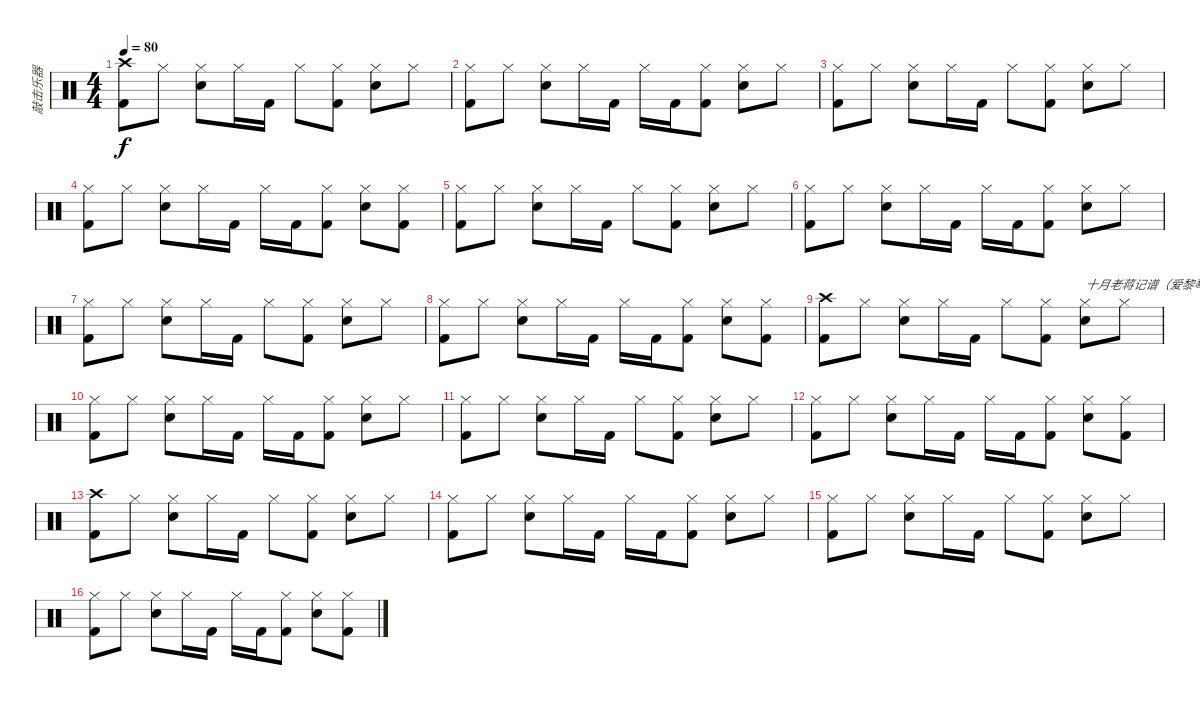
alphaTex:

\track ("敲击乐器" "敲击乐器") {instrument percussion}
\staff {score}
\articulation defaults
\ts (4 4)
\tempo 80
\clef neutral
\ks c
("Crash high (hit)" "Kick (hit) 2").8{dy f} "Hi-Hat (closed)".8 ("Hi-Hat (closed)" "Electric Snare (hit)").8 "Hi-Hat (closed)".16 "Kick (hit) 2".16 "Hi-Hat (closed)".8 ("Hi-Hat (closed)" "Kick (hit) 2").8 ("Hi-Hat (closed)" "Electric Snare (hit)").8 "Hi-Hat (closed)".8 |
("Hi-Hat (closed)" "Kick (hit) 2").8 "Hi-Hat (closed)".8 ("Hi-Hat (closed)" "Electric Snare (hit)").8 "Hi-Hat (closed)".16 "Kick (hit) 2".16 "Hi-Hat (closed)".16 "Kick (hit) 2".16 ("Hi-Hat (closed)" "Kick (hit) 2").8 ("Hi-Hat (closed)" "Electric Snare (hit)").8 "Hi-Hat (closed)".8 |
("Hi-Hat (closed)" "Kick (hit) 2").8 "Hi-Hat (closed)".8 ("Hi-Hat (closed)" "Electric Snare (hit)").8 "Hi-Hat (closed)".16 "Kick (hit) 2".16 "Hi-Hat (closed)".8 ("Hi-Hat (closed)" "Kick (hit) 2").8 ("Hi-Hat (closed)" "Electric Snare (hit)").8 "Hi-Hat (closed)".8 |
("Hi-Hat (closed)" "Kick (hit) 2").8 "Hi-Hat (closed)".8 ("Hi-Hat (closed)" "Electric Snare (hit)").8 "Hi-Hat (closed)".16 "Kick (hit) 2".16 "Hi-Hat (closed)".16 "Kick (hit) 2".16 ("Hi-Hat (closed)" "Kick (hit) 2").8 ("Hi-Hat (closed)" "Electric Snare (hit)").8 ("Hi-Hat (closed)" "Kick (hit) 2").8 |
("Hi-Hat (closed)" "Kick (hit) 2").8 "Hi-Hat (closed)".8 ("Hi-Hat (closed)" "Electric Snare (hit)").8 "Hi-Hat (closed)".16 "Kick (hit) 2".16 "Hi-Hat (closed)".8 ("Hi-Hat (closed)" "Kick (hit) 2").8 ("Hi-Hat (closed)" "Electric Snare (hit)").8 "Hi-Hat (closed)".8 |
("Hi-Hat (closed)" "Kick (hit) 2").8 "Hi-Hat (closed)".8 ("Hi-Hat (closed)" "Electric Snare (hit)").8 "Hi-Hat (closed)".16 "Kick (hit) 2".16 "Hi-Hat (closed)".16 "Kick (hit) 2".16 ("Hi-Hat (closed)" "Kick (hit) 2").8 ("Hi-Hat (closed)" "Electric Snare (hit)").8 "Hi-Hat (closed)".8 |
("Hi-Hat (closed)" "Kick (hit) 2").8 "Hi-Hat (closed)".8 ("Hi-Hat (closed)" "Electric Snare (hit)").8 "Hi-Hat (closed)".16 "Kick (hit) 2".16 "Hi-Hat (closed)".8 ("Hi-Hat (closed)" "Kick (hit) 2").8 ("Hi-Hat (closed)" "Electric Snare (hit)").8 "Hi-Hat (closed)".8 |
("Hi-Hat (closed)" "Kick (hit) 2").8 "Hi-Hat (closed)".8 ("Hi-Hat (closed)" "Electric Snare (hit)").8 "Hi-Hat (closed)".16 "Kick (hit) 2".16 "Hi-Hat (closed)".16 "Kick (hit) 2".16 ("Hi-Hat (closed)" "Kick (hit) 2").8 ("Hi-Hat (closed)" "Electric Snare (hit)").8 ("Hi-Hat (closed)" "Kick (hit) 2").8 |
("Crash high (hit)" "Kick (hit) 2").8 "Hi-Hat (closed)".8 ("Hi-Hat (closed)" "Electric Snare (hit)").8 "Hi-Hat (closed)".16 "Kick (hit) 2".16 "Hi-Hat (closed)".8 ("Hi-Hat (closed)" "Kick (hit) 2").8 ("Hi-Hat (closed)" "Electric Snare (hit)").8{txt "十月老蒋记谱（爱黎琴行）QQ:1713914374"} "Hi-Hat (closed)".8 |
("Hi-Hat (closed)" "Kick (hit) 2").8 "Hi-Hat (closed)".8 ("Hi-Hat (closed)" "Electric Snare (hit)").8 "Hi-Hat (closed)".16 "Kick (hit) 2".16 "Hi-Hat (closed)".16 "Kick (hit) 2".16 ("Hi-Hat (closed)" "Kick (hit) 2").8 ("Hi-Hat (closed)" "Electric Snare (hit)").8 "Hi-Hat (closed)".8 |
("Hi-Hat (closed)" "Kick (hit) 2").8 "Hi-Hat (closed)".8 ("Hi-Hat (closed)" "Electric Snare (hit)").8 "Hi-Hat (closed)".16 "Kick (hit) 2".16 "Hi-Hat (closed)".8 ("Hi-Hat (closed)" "Kick (hit) 2").8 ("Hi-Hat (closed)" "Electric Snare (hit)").8 "Hi-Hat (closed)".8 |
("Hi-Hat (closed)" "Kick (hit) 2").8 "Hi-Hat (closed)".8 ("Hi-Hat (closed)" "Electric Snare (hit)").8 "Hi-Hat (closed)".16 "Kick (hit) 2".16 "Hi-Hat (closed)".16 "Kick (hit) 2".16 ("Hi-Hat (closed)" "Kick (hit) 2").8 ("Hi-Hat (closed)" "Electric Snare (hit)").8 ("Hi-Hat (closed)" "Kick (hit) 2").8 |
("Crash high (hit)" "Kick (hit) 2").8 "Hi-Hat (closed)".8 ("Hi-Hat (closed)" "Electric Snare (hit)").8 "Hi-Hat (closed)".16 "Kick (hit) 2".16 "Hi-Hat (closed)".8 ("Hi-Hat (closed)" "Kick (hit) 2").8 ("Hi-Hat (closed)" "Electric Snare (hit)").8 "Hi-Hat (closed)".8 |
("Hi-Hat (closed)" "Kick (hit) 2").8 "Hi-Hat (closed)".8 ("Hi-Hat (closed)" "Electric Snare (hit)").8 "Hi-Hat (closed)".16 "Kick (hit) 2".16 "Hi-Hat (closed)".16 "Kick (hit) 2".16 ("Hi-Hat (closed)" "Kick (hit) 2").8 ("Hi-Hat (closed)" "Electric Snare (hit)").8 "Hi-Hat (closed)".8 |
("Hi-Hat (closed)" "Kick (hit) 2").8 "Hi-Hat (closed)".8 ("Hi-Hat (closed)" "Electric Snare (hit)").8 "Hi-Hat (closed)".16 "Kick (hit) 2".16 "Hi-Hat (closed)".8 ("Hi-Hat (closed)" "Kick (hit) 2").8 ("Hi-Hat (closed)" "Electric Snare (hit)").8 "Hi-Hat (closed)".8 |
("Hi-Hat (closed)" "Kick (hit) 2").8 "Hi-Hat (closed)".8 ("Hi-Hat (closed)" "Electric Snare (hit)").8 "Hi-Hat (closed)".16 "Kick (hit) 2".16 "Hi-Hat (closed)".16 "Kick (hit) 2".16 ("Hi-Hat (closed)" "Kick (hit) 2").8 ("Hi-Hat (closed)" "Electric Snare (hit)").8 ("Hi-Hat (closed)" "Kick (hit) 2").8
